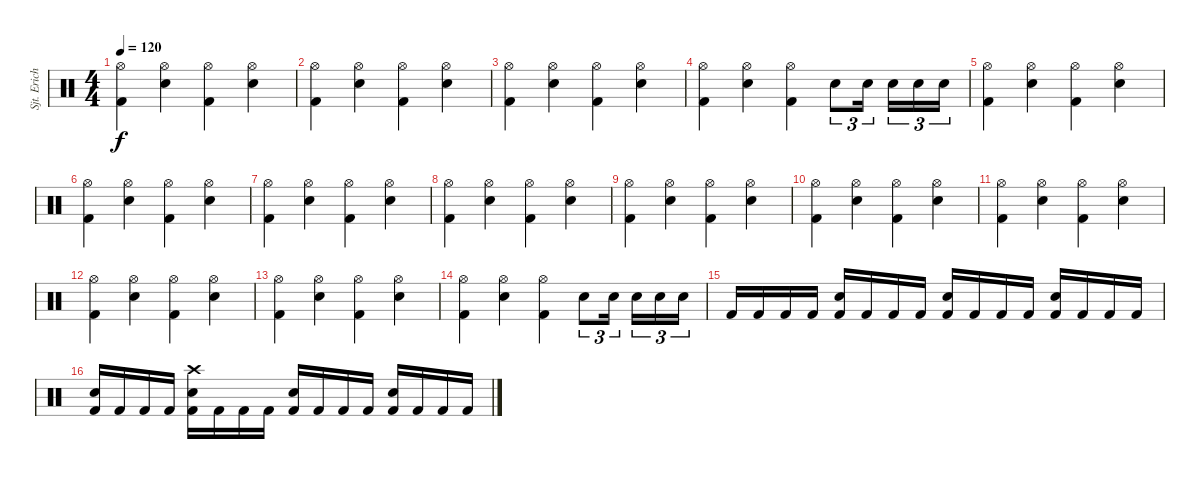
\track ("Sjt. Erichsen" "Sjt. Erich") {instrument percussion}
\staff {score}
\articulation defaults
\ts (4 4)
\tempo 120
\clef neutral
\ks c
("Hi-Hat (open)" "Kick (hit) 2").4{dy f} ("Hi-Hat (open)" "Electric Snare (hit)").4 ("Hi-Hat (open)" "Kick (hit) 2").4 ("Hi-Hat (open)" "Electric Snare (hit)").4 |
("Hi-Hat (open)" "Kick (hit) 2").4 ("Hi-Hat (open)" "Electric Snare (hit)").4 ("Hi-Hat (open)" "Kick (hit) 2").4 ("Hi-Hat (open)" "Electric Snare (hit)").4 |
("Hi-Hat (open)" "Kick (hit) 2").4 ("Hi-Hat (open)" "Electric Snare (hit)").4 ("Hi-Hat (open)" "Kick (hit) 2").4 ("Hi-Hat (open)" "Electric Snare (hit)").4 |
("Hi-Hat (open)" "Kick (hit) 2").4 ("Hi-Hat (open)" "Electric Snare (hit)").4 ("Hi-Hat (open)" "Kick (hit) 2").4 "Electric Snare (hit)".8{tu (3 2)} "Electric Snare (hit)".16{tu (3 2)} "Electric Snare (hit)".16{tu (3 2)} "Electric Snare (hit)".16{tu (3 2)} "Electric Snare (hit)".16{tu (3 2)} |
("Hi-Hat (open)" "Kick (hit) 2").4 ("Hi-Hat (open)" "Electric Snare (hit)").4 ("Hi-Hat (open)" "Kick (hit) 2").4 ("Hi-Hat (open)" "Electric Snare (hit)").4 |
("Hi-Hat (open)" "Kick (hit) 2").4 ("Hi-Hat (open)" "Electric Snare (hit)").4 ("Hi-Hat (open)" "Kick (hit) 2").4 ("Hi-Hat (open)" "Electric Snare (hit)").4 |
("Hi-Hat (open)" "Kick (hit) 2").4 ("Hi-Hat (open)" "Electric Snare (hit)").4 ("Hi-Hat (open)" "Kick (hit) 2").4 ("Hi-Hat (open)" "Electric Snare (hit)").4 |
("Hi-Hat (open)" "Kick (hit) 2").4 ("Hi-Hat (open)" "Electric Snare (hit)").4 ("Hi-Hat (open)" "Kick (hit) 2").4 ("Hi-Hat (open)" "Electric Snare (hit)").4 |
("Hi-Hat (open)" "Kick (hit) 2").4 ("Hi-Hat (open)" "Electric Snare (hit)").4 ("Hi-Hat (open)" "Kick (hit) 2").4 ("Hi-Hat (open)" "Electric Snare (hit)").4 |
("Hi-Hat (open)" "Kick (hit) 2").4 ("Hi-Hat (open)" "Electric Snare (hit)").4 ("Hi-Hat (open)" "Kick (hit) 2").4 ("Hi-Hat (open)" "Electric Snare (hit)").4 |
("Hi-Hat (open)" "Kick (hit) 2").4 ("Hi-Hat (open)" "Electric Snare (hit)").4 ("Hi-Hat (open)" "Kick (hit) 2").4 ("Hi-Hat (open)" "Electric Snare (hit)").4 |
("Hi-Hat (open)" "Kick (hit) 2").4 ("Hi-Hat (open)" "Electric Snare (hit)").4 ("Hi-Hat (open)" "Kick (hit) 2").4 ("Hi-Hat (open)" "Electric Snare (hit)").4 |
("Hi-Hat (open)" "Kick (hit) 2").4 ("Hi-Hat (open)" "Electric Snare (hit)").4 ("Hi-Hat (open)" "Kick (hit) 2").4 ("Hi-Hat (open)" "Electric Snare (hit)").4 |
("Hi-Hat (open)" "Kick (hit) 2").4 ("Hi-Hat (open)" "Electric Snare (hit)").4 ("Hi-Hat (open)" "Kick (hit) 2").4 "Electric Snare (hit)".8{tu (3 2)} "Electric Snare (hit)".16{tu (3 2)} "Electric Snare (hit)".16{tu (3 2)} "Electric Snare (hit)".16{tu (3 2)} "Electric Snare (hit)".16{tu (3 2)} |
"Kick (hit) 2".16 "Kick (hit) 2".16 "Kick (hit) 2".16 "Kick (hit) 2".16 ("Electric Snare (hit)" "Kick (hit) 2").16 "Kick (hit) 2".16 "Kick (hit) 2".16 "Kick (hit) 2".16 ("Electric Snare (hit)" "Kick (hit) 2").16 "Kick (hit) 2".16 "Kick (hit) 2".16 "Kick (hit) 2".16 ("Electric Snare (hit)" "Kick (hit) 2").16 "Kick (hit) 2".16 "Kick (hit) 2".16 "Kick (hit) 2".16 |
("Electric Snare (hit)" "Kick (hit) 2").16 "Kick (hit) 2".16 "Kick (hit) 2".16 "Kick (hit) 2".16 ("Crash high (hit)" "Electric Snare (hit)" "Kick (hit) 2").16 "Kick (hit) 2".16 "Kick (hit) 2".16 "Kick (hit) 2".16 ("Electric Snare (hit)" "Kick (hit) 2").16 "Kick (hit) 2".16 "Kick (hit) 2".16 "Kick (hit) 2".16 ("Electric Snare (hit)" "Kick (hit) 2").16 "Kick (hit) 2".16 "Kick (hit) 2".16 "Kick (hit) 2".16
